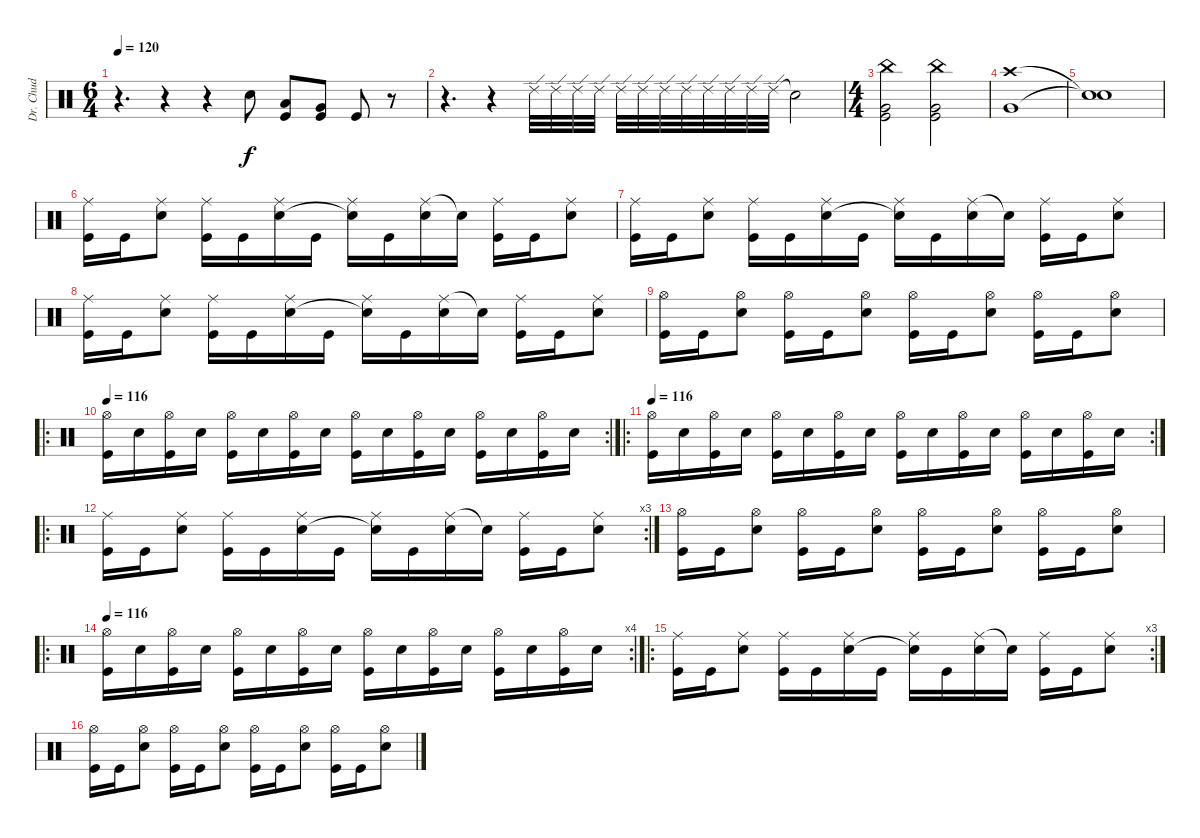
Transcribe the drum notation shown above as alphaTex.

\track ("Dr. Chud" "Dr. Chud") {instrument percussion}
\staff {score}
\articulation defaults
\ts (6 4)
\tempo 120
\clef neutral
\ks c
r.4{d dy f} r.4 r.4 "Snare (hit) 2".8 ("Low Tom (hit)" "Kick (hit)").8 ("Very Low Tom (hit)" "Kick (hit)").8 "Kick (hit)".8 r.8 |
r.4{d} r.4 "Ride (edge) 2".32 "Ride (edge) 2".32 "Ride (edge) 2".32 "Ride (edge) 2".32 "Ride (edge) 2".32 "Ride (edge) 2".32 "Ride (edge) 2".32 "Ride (edge) 2".32 "Ride (edge) 2".32 "Ride (edge) 2".32 "Ride (edge) 2".32 "Ride (edge) 2".32 "Snare (hit)"{t}.2 |
\ts (4 4)
("China (hit)" "Very Low Tom (hit)" "Kick (hit)").2 ("China (hit)" "Very Low Tom (hit)" "Kick (hit)").2 |
("Crash high (hit)" "Very Low Tom (hit)").1 |
("Snare (hit)"{t} "Snare (hit)"{t}).1 |
("Ride (middle)" "Kick (hit)").16 "Kick (hit)".16 ("Ride (middle)" "Snare (hit) 2").8 ("Ride (middle)" "Kick (hit)").16 "Kick (hit)".16 ("Ride (middle)" "Snare (hit) 2").16 "Kick (hit)".16 ("Ride (middle)" "Snare (hit)"{t}).16 "Kick (hit)".16 ("Ride (middle)" "Snare (hit) 2").16 "Snare (hit)"{t}.16 ("Ride (middle)" "Kick (hit)").16 "Kick (hit)".16 ("Ride (middle)" "Snare (hit) 2").8 |
("Ride (middle)" "Kick (hit)").16 "Kick (hit)".16 ("Ride (middle)" "Snare (hit) 2").8 ("Ride (middle)" "Kick (hit)").16 "Kick (hit)".16 ("Ride (middle)" "Snare (hit) 2").16 "Kick (hit)".16 ("Ride (middle)" "Snare (hit)"{t}).16 "Kick (hit)".16 ("Ride (middle)" "Snare (hit) 2").16 "Snare (hit)"{t}.16 ("Ride (middle)" "Kick (hit)").16 "Kick (hit)".16 ("Ride (middle)" "Snare (hit) 2").8 |
("Ride (middle)" "Kick (hit)").16 "Kick (hit)".16 ("Ride (middle)" "Snare (hit) 2").8 ("Ride (middle)" "Kick (hit)").16 "Kick (hit)".16 ("Ride (middle)" "Snare (hit) 2").16 "Kick (hit)".16 ("Ride (middle)" "Snare (hit)"{t}).16 "Kick (hit)".16 ("Ride (middle)" "Snare (hit) 2").16 "Snare (hit)"{t}.16 ("Ride (middle)" "Kick (hit)").16 "Kick (hit)".16 ("Ride (middle)" "Snare (hit) 2").8 |
("Hi-Hat (open)" "Kick (hit)").16 "Kick (hit)".16 ("Hi-Hat (open)" "Snare (hit) 2").8 ("Hi-Hat (open)" "Kick (hit)").16 "Kick (hit)".16 ("Hi-Hat (open)" "Snare (hit) 2").8 ("Hi-Hat (open)" "Kick (hit)").16 "Kick (hit)".16 ("Hi-Hat (open)" "Snare (hit) 2").8 ("Hi-Hat (open)" "Kick (hit)").16 "Kick (hit)".16 ("Hi-Hat (open)" "Snare (hit) 2").8 |
\ro
\rc 2
\tempo 116
("Hi-Hat (open)" "Kick (hit)").16 "Snare (hit) 2".16 ("Hi-Hat (open)" "Kick (hit)").16 "Snare (hit) 2".16 ("Hi-Hat (open)" "Kick (hit)").16 "Snare (hit) 2".16 ("Hi-Hat (open)" "Kick (hit)").16 "Snare (hit) 2".16 ("Hi-Hat (open)" "Kick (hit)").16 "Snare (hit) 2".16 ("Hi-Hat (open)" "Kick (hit)").16 "Snare (hit) 2".16 ("Hi-Hat (open)" "Kick (hit)").16 "Snare (hit) 2".16 ("Hi-Hat (open)" "Kick (hit)").16 "Snare (hit) 2".16 |
\ro
\rc 2
\tempo 116
("Hi-Hat (open)" "Kick (hit)").16 "Snare (hit) 2".16 ("Hi-Hat (open)" "Kick (hit)").16 "Snare (hit) 2".16 ("Hi-Hat (open)" "Kick (hit)").16 "Snare (hit) 2".16 ("Hi-Hat (open)" "Kick (hit)").16 "Snare (hit) 2".16 ("Hi-Hat (open)" "Kick (hit)").16 "Snare (hit) 2".16 ("Hi-Hat (open)" "Kick (hit)").16 "Snare (hit) 2".16 ("Hi-Hat (open)" "Kick (hit)").16 "Snare (hit) 2".16 ("Hi-Hat (open)" "Kick (hit)").16 "Snare (hit) 2".16 |
\ro
\rc 3
("Ride (middle)" "Kick (hit)").16 "Kick (hit)".16 ("Ride (middle)" "Snare (hit) 2").8 ("Ride (middle)" "Kick (hit)").16 "Kick (hit)".16 ("Ride (middle)" "Snare (hit) 2").16 "Kick (hit)".16 ("Ride (middle)" "Snare (hit)"{t}).16 "Kick (hit)".16 ("Ride (middle)" "Snare (hit) 2").16 "Snare (hit)"{t}.16 ("Ride (middle)" "Kick (hit)").16 "Kick (hit)".16 ("Ride (middle)" "Snare (hit) 2").8 |
("Hi-Hat (open)" "Kick (hit)").16 "Kick (hit)".16 ("Hi-Hat (open)" "Snare (hit) 2").8 ("Hi-Hat (open)" "Kick (hit)").16 "Kick (hit)".16 ("Hi-Hat (open)" "Snare (hit) 2").8 ("Hi-Hat (open)" "Kick (hit)").16 "Kick (hit)".16 ("Hi-Hat (open)" "Snare (hit) 2").8 ("Hi-Hat (open)" "Kick (hit)").16 "Kick (hit)".16 ("Hi-Hat (open)" "Snare (hit) 2").8 |
\ro
\rc 4
\tempo 116
("Hi-Hat (open)" "Kick (hit)").16 "Snare (hit) 2".16 ("Hi-Hat (open)" "Kick (hit)").16 "Snare (hit) 2".16 ("Hi-Hat (open)" "Kick (hit)").16 "Snare (hit) 2".16 ("Hi-Hat (open)" "Kick (hit)").16 "Snare (hit) 2".16 ("Hi-Hat (open)" "Kick (hit)").16 "Snare (hit) 2".16 ("Hi-Hat (open)" "Kick (hit)").16 "Snare (hit) 2".16 ("Hi-Hat (open)" "Kick (hit)").16 "Snare (hit) 2".16 ("Hi-Hat (open)" "Kick (hit)").16 "Snare (hit) 2".16 |
\ro
\rc 3
("Ride (middle)" "Kick (hit)").16 "Kick (hit)".16 ("Ride (middle)" "Snare (hit) 2").8 ("Ride (middle)" "Kick (hit)").16 "Kick (hit)".16 ("Ride (middle)" "Snare (hit) 2").16 "Kick (hit)".16 ("Ride (middle)" "Snare (hit)"{t}).16 "Kick (hit)".16 ("Ride (middle)" "Snare (hit) 2").16 "Snare (hit)"{t}.16 ("Ride (middle)" "Kick (hit)").16 "Kick (hit)".16 ("Ride (middle)" "Snare (hit) 2").8 |
("Hi-Hat (open)" "Kick (hit)").16 "Kick (hit)".16 ("Hi-Hat (open)" "Snare (hit) 2").8 ("Hi-Hat (open)" "Kick (hit)").16 "Kick (hit)".16 ("Hi-Hat (open)" "Snare (hit) 2").8 ("Hi-Hat (open)" "Kick (hit)").16 "Kick (hit)".16 ("Hi-Hat (open)" "Snare (hit) 2").8 ("Hi-Hat (open)" "Kick (hit)").16 "Kick (hit)".16 ("Hi-Hat (open)" "Snare (hit) 2").8
